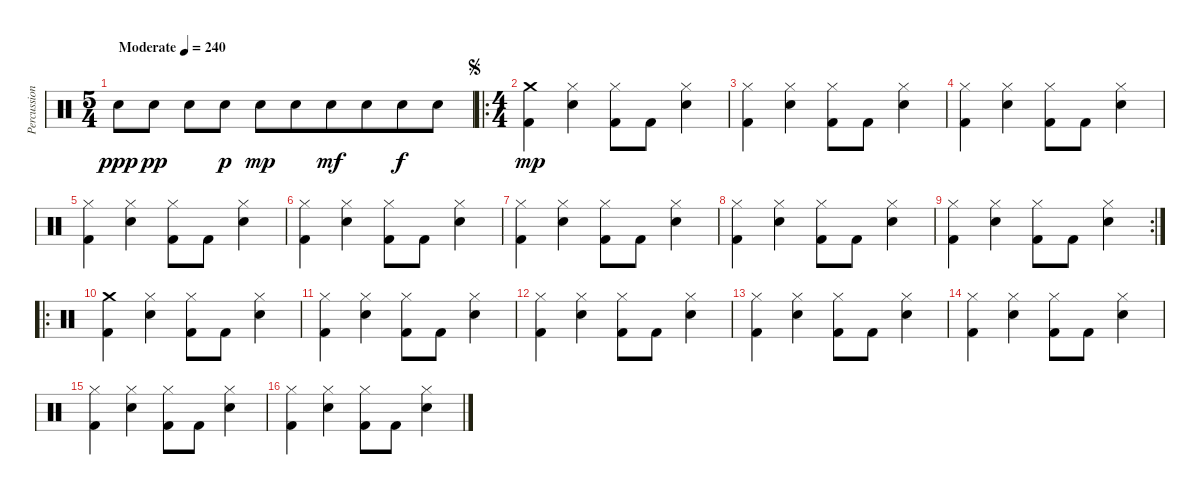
\track ("Percussions" "Percussion") {instrument percussion}
\staff {score}
\articulation defaults
\ts (5 4)
\tempo (240 "Moderate")
\clef neutral
\ks c "Electric Snare (hit)".8{dy ppp beam merge} "Electric Snare (hit)".8{dy pp} "Electric Snare (hit)".8{beam merge} "Electric Snare (hit)".8{dy p} "Electric Snare (hit)".8{dy mp beam merge} "Electric Snare (hit)".8{beam merge} "Electric Snare (hit)".8{dy mf beam merge} "Electric Snare (hit)".8{beam merge} "Electric Snare (hit)".8{dy f beam merge} "Electric Snare (hit)".8
|
\ro
\ts (4 4)
\jump segno
("Crash medium (hit)" "Kick (hit) 2").4{dy mp} ("Hi-Hat (closed)" "Electric Snare (hit)").4 ("Hi-Hat (closed)" "Kick (hit) 2").8 "Kick (hit) 2".8 ("Hi-Hat (closed)" "Electric Snare (hit)").4 |
("Hi-Hat (closed)" "Kick (hit) 2").4 ("Hi-Hat (closed)" "Electric Snare (hit)").4 ("Hi-Hat (closed)" "Kick (hit) 2").8 "Kick (hit) 2".8 ("Hi-Hat (closed)" "Electric Snare (hit)").4 |
("Hi-Hat (closed)" "Kick (hit) 2").4 ("Hi-Hat (closed)" "Electric Snare (hit)").4 ("Hi-Hat (closed)" "Kick (hit) 2").8 "Kick (hit) 2".8 ("Hi-Hat (closed)" "Electric Snare (hit)").4 |
("Hi-Hat (closed)" "Kick (hit) 2").4 ("Hi-Hat (closed)" "Electric Snare (hit)").4 ("Hi-Hat (closed)" "Kick (hit) 2").8 "Kick (hit) 2".8 ("Hi-Hat (closed)" "Electric Snare (hit)").4 |
("Hi-Hat (closed)" "Kick (hit) 2").4 ("Hi-Hat (closed)" "Electric Snare (hit)").4 ("Hi-Hat (closed)" "Kick (hit) 2").8 "Kick (hit) 2".8 ("Hi-Hat (closed)" "Electric Snare (hit)").4 |
("Hi-Hat (closed)" "Kick (hit) 2").4 ("Hi-Hat (closed)" "Electric Snare (hit)").4 ("Hi-Hat (closed)" "Kick (hit) 2").8 "Kick (hit) 2".8 ("Hi-Hat (closed)" "Electric Snare (hit)").4 |
("Hi-Hat (closed)" "Kick (hit) 2").4 ("Hi-Hat (closed)" "Electric Snare (hit)").4 ("Hi-Hat (closed)" "Kick (hit) 2").8 "Kick (hit) 2".8 ("Hi-Hat (closed)" "Electric Snare (hit)").4 |
\rc 2
("Hi-Hat (closed)" "Kick (hit) 2").4 ("Hi-Hat (closed)" "Electric Snare (hit)").4 ("Hi-Hat (closed)" "Kick (hit) 2").8 "Kick (hit) 2".8 ("Hi-Hat (closed)" "Electric Snare (hit)").4 |
\ro
("Crash medium (hit)" "Kick (hit) 2").4 ("Hi-Hat (closed)" "Electric Snare (hit)").4 ("Hi-Hat (closed)" "Kick (hit) 2").8 "Kick (hit) 2".8 ("Hi-Hat (closed)" "Electric Snare (hit)").4 |
("Hi-Hat (closed)" "Kick (hit) 2").4 ("Hi-Hat (closed)" "Electric Snare (hit)").4 ("Hi-Hat (closed)" "Kick (hit) 2").8 "Kick (hit) 2".8 ("Hi-Hat (closed)" "Electric Snare (hit)").4 |
("Hi-Hat (closed)" "Kick (hit) 2").4 ("Hi-Hat (closed)" "Electric Snare (hit)").4 ("Hi-Hat (closed)" "Kick (hit) 2").8 "Kick (hit) 2".8 ("Hi-Hat (closed)" "Electric Snare (hit)").4 |
("Hi-Hat (closed)" "Kick (hit) 2").4 ("Hi-Hat (closed)" "Electric Snare (hit)").4 ("Hi-Hat (closed)" "Kick (hit) 2").8 "Kick (hit) 2".8 ("Hi-Hat (closed)" "Electric Snare (hit)").4 |
("Hi-Hat (closed)" "Kick (hit) 2").4 ("Hi-Hat (closed)" "Electric Snare (hit)").4 ("Hi-Hat (closed)" "Kick (hit) 2").8 "Kick (hit) 2".8 ("Hi-Hat (closed)" "Electric Snare (hit)").4 |
("Hi-Hat (closed)" "Kick (hit) 2").4 ("Hi-Hat (closed)" "Electric Snare (hit)").4 ("Hi-Hat (closed)" "Kick (hit) 2").8 "Kick (hit) 2".8 ("Hi-Hat (closed)" "Electric Snare (hit)").4 |
("Hi-Hat (closed)" "Kick (hit) 2").4 ("Hi-Hat (closed)" "Electric Snare (hit)").4 ("Hi-Hat (closed)" "Kick (hit) 2").8 "Kick (hit) 2".8 ("Hi-Hat (closed)" "Electric Snare (hit)").4
